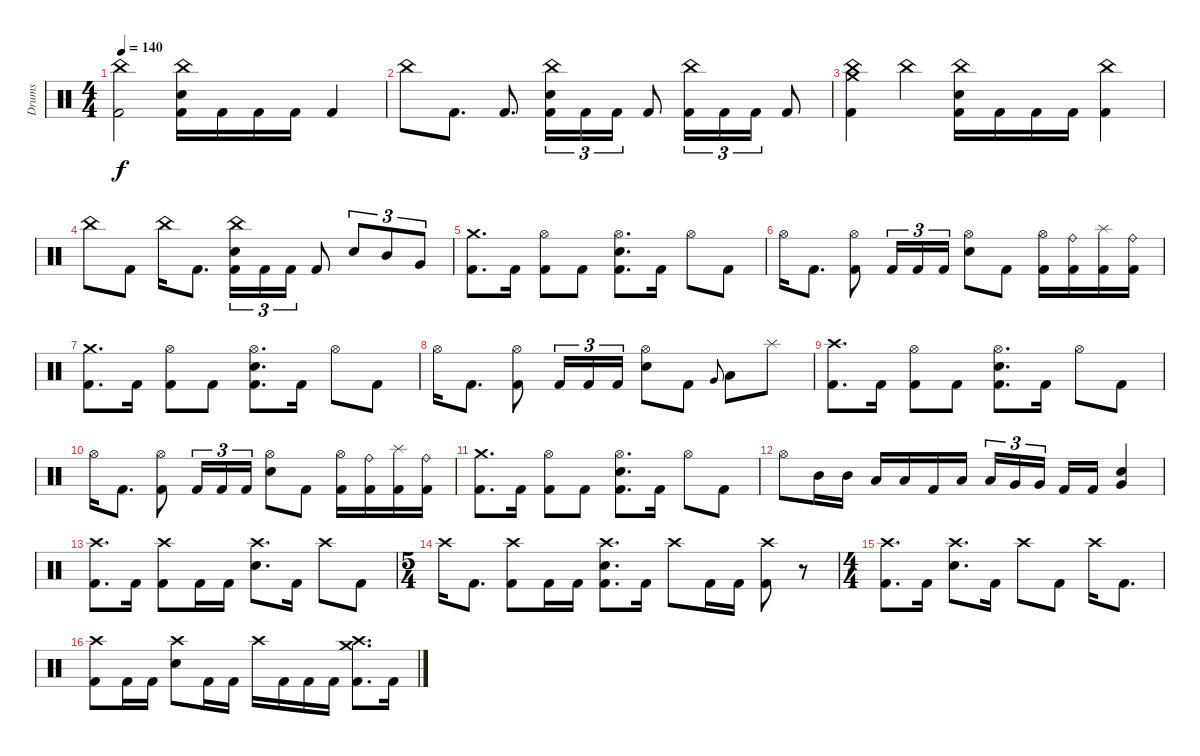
\track ("Drums" "Drums") {instrument percussion}
\staff {score}
\articulation defaults
\ts (4 4)
\tempo 140
\clef neutral
\ks c
("China (hit)" "Kick (hit) 2").2{dy f} ("China (hit)" "Electric Snare (hit)" "Kick (hit) 2").16 "Kick (hit) 2".16 "Kick (hit) 2".16 "Kick (hit) 2".16 "Kick (hit) 2".4 |
"China (hit)".8 "Kick (hit) 2".8{d} "Kick (hit) 2".8{d} ("China (hit)" "Electric Snare (hit)" "Kick (hit) 2").16{tu (3 2)} "Kick (hit) 2".16{tu (3 2)} "Kick (hit) 2".16{tu (3 2)} "Kick (hit) 2".8 ("China (hit)" "Kick (hit) 2").16{tu (3 2)} "Kick (hit) 2".16{tu (3 2)} "Kick (hit) 2".16{tu (3 2)} "Kick (hit) 2".8 |
("China (hit)" "Crash medium (hit)" "Kick (hit) 2").4 "China (hit)".4 ("China (hit)" "Electric Snare (hit)" "Kick (hit) 2").16 "Kick (hit) 2".16 "Kick (hit) 2".16 "Kick (hit) 2".16 ("China (hit)" "Kick (hit) 2").4 |
"China (hit)".8 "Kick (hit) 2".8 "China (hit)".16 "Kick (hit) 2".8{d} ("China (hit)" "Electric Snare (hit)" "Kick (hit) 2").16{tu (3 2)} "Kick (hit) 2".16{tu (3 2)} "Kick (hit) 2".16{tu (3 2)} "Kick (hit) 2".8 "Electric Snare (hit)".8{tu (3 2)} "Mid Tom (hit)".8{tu (3 2)} "Very Low Tom (hit)".8{tu (3 2)} |
("Crash medium (hit)" "Kick (hit) 2").8{d} "Kick (hit) 2".16 ("Hi-Hat (open)" "Kick (hit) 2").8 "Kick (hit) 2".8 ("Hi-Hat (open)" "Electric Snare (hit)" "Kick (hit) 2").8{d} "Kick (hit) 2".16 "Hi-Hat (open)".8 "Kick (hit) 2".8 |
"Hi-Hat (open)".16 "Kick (hit) 2".8{d} ("Hi-Hat (open)" "Kick (hit) 2").8 "Kick (hit) 2".16{tu (3 2)} "Kick (hit) 2".16{tu (3 2)} "Kick (hit) 2".16{tu (3 2)} ("Hi-Hat (open)" "Electric Snare (hit)").8 "Kick (hit) 2".8 ("Hi-Hat (open)" "Kick (hit) 2").16 ("Ride (bell)" "Kick (hit) 2").16 ("Splash (hit)" "Kick (hit) 2").16 ("Ride (bell)" "Kick (hit) 2").16 |
("Crash medium (hit)" "Kick (hit) 2").8{d} "Kick (hit) 2".16 ("Hi-Hat (open)" "Kick (hit) 2").8 "Kick (hit) 2".8 ("Hi-Hat (open)" "Electric Snare (hit)" "Kick (hit) 2").8{d} "Kick (hit) 2".16 "Hi-Hat (open)".8 "Kick (hit) 2".8 |
"Hi-Hat (open)".16 "Kick (hit) 2".8{d} ("Hi-Hat (open)" "Kick (hit) 2").8 "Kick (hit) 2".16{tu (3 2)} "Kick (hit) 2".16{tu (3 2)} "Kick (hit) 2".16{tu (3 2)} ("Hi-Hat (open)" "Electric Snare (hit)").8 "Kick (hit) 2".8 "Very Low Tom (hit)".8{gr onbeat} "Low Tom (hit)".8 "Splash (hit)".8 |
("Crash high (hit)" "Kick (hit) 2").8{d} "Kick (hit) 2".16 ("Hi-Hat (open)" "Kick (hit) 2").8 "Kick (hit) 2".8 ("Hi-Hat (open)" "Electric Snare (hit)" "Kick (hit) 2").8{d} "Kick (hit) 2".16 "Hi-Hat (open)".8 "Kick (hit) 2".8 |
"Hi-Hat (open)".16 "Kick (hit) 2".8{d} ("Hi-Hat (open)" "Kick (hit) 2").8 "Kick (hit) 2".16{tu (3 2)} "Kick (hit) 2".16{tu (3 2)} "Kick (hit) 2".16{tu (3 2)} ("Hi-Hat (open)" "Electric Snare (hit)").8 "Kick (hit) 2".8 ("Hi-Hat (open)" "Kick (hit) 2").16 ("Ride (bell)" "Kick (hit) 2").16 ("Splash (hit)" "Kick (hit) 2").16 ("Ride (bell)" "Kick (hit) 2").16 |
("Crash medium (hit)" "Kick (hit) 2").8{d} "Kick (hit) 2".16 ("Hi-Hat (open)" "Kick (hit) 2").8 "Kick (hit) 2".8 ("Hi-Hat (open)" "Electric Snare (hit)" "Kick (hit) 2").8{d} "Kick (hit) 2".16 "Hi-Hat (open)".8 "Kick (hit) 2".8 |
"Hi-Hat (open)".8 "Mid Tom (hit)".16 "Mid Tom (hit)".16 "Low Tom (hit)".16 "Low Tom (hit)".16 "Kick (hit) 2".16 "Low Tom (hit)".16 "Low Tom (hit)".16{tu (3 2)} "Very Low Tom (hit)".16{tu (3 2)} "Very Low Tom (hit)".16{tu (3 2) beam splitsecondary} "Kick (hit) 2".16 "Kick (hit) 2".16 ("Electric Snare (hit)" "Very Low Tom (hit)").4 |
("Crash high (hit)" "Kick (hit) 2").8{d} "Kick (hit) 2".16 ("Crash high (hit)" "Kick (hit) 2").8 "Kick (hit) 2".16 "Kick (hit) 2".16 ("Crash high (hit)" "Electric Snare (hit)").8{d} "Kick (hit) 2".16 "Crash high (hit)".8 "Kick (hit) 2".8 |
\ts (5 4)
"Crash high (hit)".16 "Kick (hit) 2".8{d} ("Crash high (hit)" "Kick (hit) 2").8 "Kick (hit) 2".16 "Kick (hit) 2".16 ("Crash high (hit)" "Electric Snare (hit)" "Kick (hit) 2").8{d} "Kick (hit) 2".16 "Crash high (hit)".8 "Kick (hit) 2".16 "Kick (hit) 2".16 ("Crash high (hit)" "Kick (hit) 2").8 r.8{volume 0} |
\ts (4 4)
("Crash high (hit)" "Kick (hit) 2").8{d volume 16} "Kick (hit) 2".16 ("Crash high (hit)" "Electric Snare (hit)").8{d} "Kick (hit) 2".16 "Crash high (hit)".8 "Kick (hit) 2".8 "Crash high (hit)".16 "Kick (hit) 2".8{d} |
("Crash high (hit)" "Kick (hit) 2").8 "Kick (hit) 2".16 "Kick (hit) 2".16 ("Crash high (hit)" "Electric Snare (hit)").8 "Kick (hit) 2".16 "Kick (hit) 2".16 "Crash high (hit)".16 "Kick (hit) 2".16 "Kick (hit) 2".16 "Kick (hit) 2".16 ("Crash high (hit)" "Crash medium (hit)" "Kick (hit) 2").8{d} "Kick (hit) 2".16
